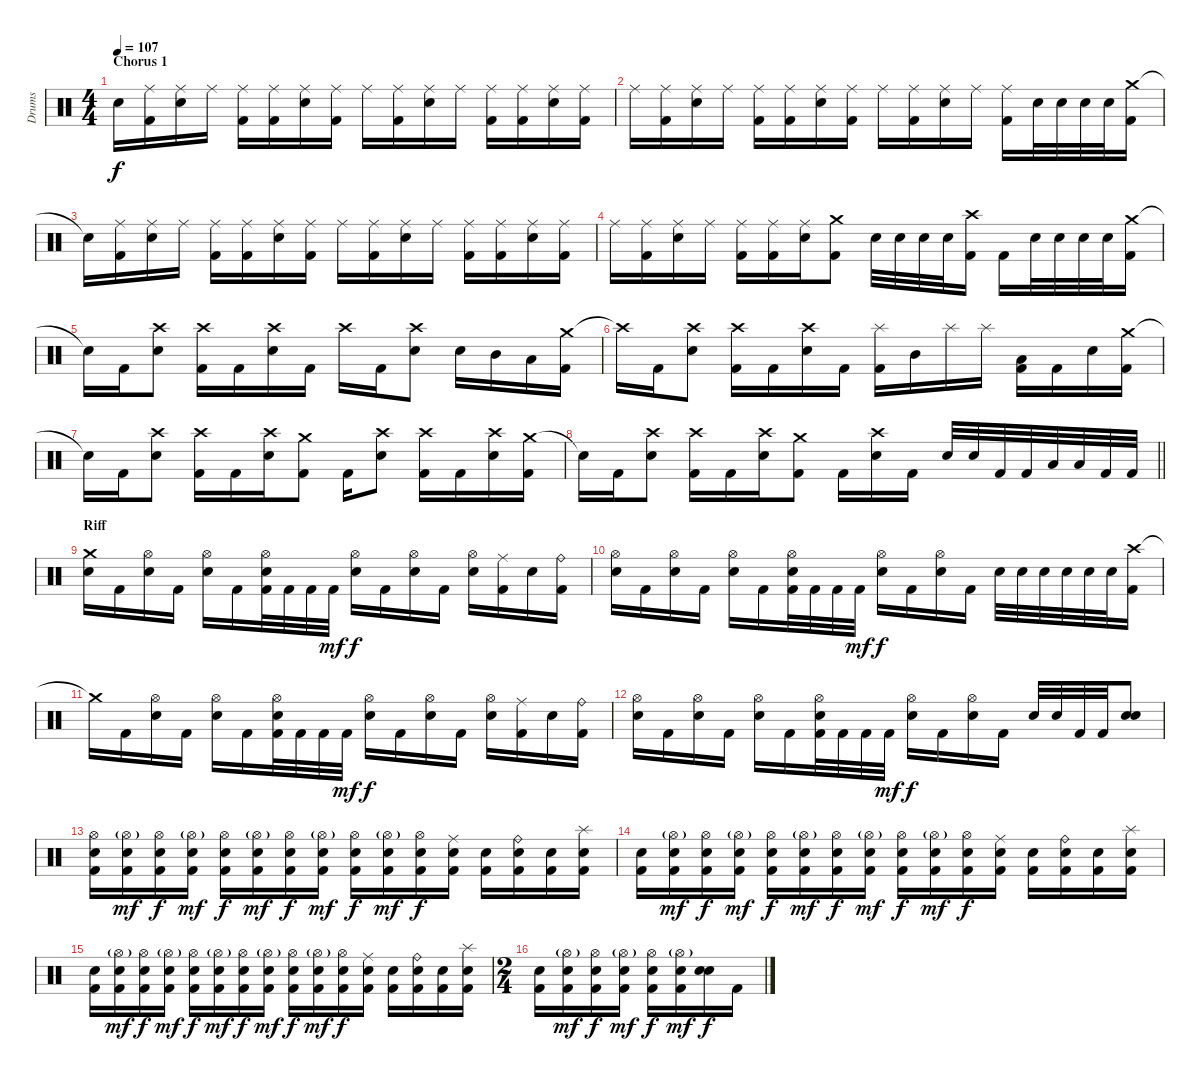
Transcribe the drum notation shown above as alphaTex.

\track ("Drums" "Drums") {instrument percussion}
\staff {score}
\articulation defaults
\ts (4 4)
\section ("" "Chorus 1")
\tempo 107
\clef neutral
\ks c "Snare (hit)"{t}.16{dy f}
("Ride (middle)" "Kick (hit) 2").16 ("Ride (middle)" "Electric Snare (hit)").16 "Ride (middle)".16 ("Ride (middle)" "Kick (hit) 2").16 ("Ride (middle)" "Kick (hit) 2").16 ("Ride (middle)" "Electric Snare (hit)").16 ("Ride (middle)" "Kick (hit) 2").16 "Ride (middle)".16 ("Ride (middle)" "Kick (hit) 2").16 ("Ride (middle)" "Electric Snare (hit)").16 "Ride (middle)".16 ("Ride (middle)" "Kick (hit) 2").16 ("Ride (middle)" "Kick (hit) 2").16 ("Ride (middle)" "Electric Snare (hit)").16 ("Ride (middle)" "Kick (hit) 2").16 |
"Ride (middle)".16 ("Ride (middle)" "Kick (hit) 2").16 ("Ride (middle)" "Electric Snare (hit)").16 "Ride (middle)".16 ("Ride (middle)" "Kick (hit) 2").16 ("Ride (middle)" "Kick (hit) 2").16 ("Ride (middle)" "Electric Snare (hit)").16 ("Ride (middle)" "Kick (hit) 2").16 "Ride (middle)".16 ("Ride (middle)" "Kick (hit) 2").16 ("Ride (middle)" "Electric Snare (hit)").16 "Ride (middle)".16 ("Ride (middle)" "Kick (hit) 2").16 "Electric Snare (hit)".32 "Electric Snare (hit)".32 "Electric Snare (hit)".32 "Electric Snare (hit)".32 ("Crash medium (hit)" "Kick (hit) 2").16 |
"Snare (hit)"{t}.16 ("Ride (middle)" "Kick (hit) 2").16 ("Ride (middle)" "Electric Snare (hit)").16 "Ride (middle)".16 ("Ride (middle)" "Kick (hit) 2").16 ("Ride (middle)" "Kick (hit) 2").16 ("Ride (middle)" "Electric Snare (hit)").16 ("Ride (middle)" "Kick (hit) 2").16 "Ride (middle)".16 ("Ride (middle)" "Kick (hit) 2").16 ("Ride (middle)" "Electric Snare (hit)").16 "Ride (middle)".16 ("Ride (middle)" "Kick (hit) 2").16 ("Ride (middle)" "Kick (hit) 2").16 ("Ride (middle)" "Electric Snare (hit)").16 ("Ride (middle)" "Kick (hit) 2").16 |
"Ride (middle)".16 ("Ride (middle)" "Kick (hit) 2").16 ("Ride (middle)" "Electric Snare (hit)").16 "Ride (middle)".16 ("Ride (middle)" "Kick (hit) 2").16 ("Ride (middle)" "Kick (hit) 2").16 ("Ride (middle)" "Electric Snare (hit)").16 ("Crash medium (hit)" "Kick (hit) 2").8 "Electric Snare (hit)".32 "Electric Snare (hit)".32 "Electric Snare (hit)".32 "Electric Snare (hit)".32 ("Crash high (hit)" "Kick (hit) 2").16 "Kick (hit) 2".16 "Electric Snare (hit)".32 "Electric Snare (hit)".32 "Electric Snare (hit)".32 "Electric Snare (hit)".32 ("Crash medium (hit)" "Kick (hit) 2").16 |
"Snare (hit)"{t}.16 "Kick (hit) 2".16 ("Crash high (hit)" "Electric Snare (hit)").8 ("Crash high (hit)" "Kick (hit) 2").16 "Kick (hit) 2".16 ("Crash high (hit)" "Electric Snare (hit)").16 "Kick (hit) 2".16 "Crash high (hit)".16 "Kick (hit) 2".16 ("Crash high (hit)" "Electric Snare (hit)").8 "Electric Snare (hit)".16 "Mid Tom (hit)".16 "Low Tom (hit)".16 ("Crash medium (hit)" "Kick (hit) 2").16 |
"Crash high (hit)"{t}.16 "Kick (hit) 2".16 ("Crash high (hit)" "Electric Snare (hit)").8 ("Crash high (hit)" "Kick (hit) 2").16 "Kick (hit) 2".16 ("Crash high (hit)" "Electric Snare (hit)").16 "Kick (hit) 2".16 ("Splash (hit)" "Kick (hit) 2").16 "Mid Tom (hit)".16 "Splash (hit)".16 "Splash (hit)".16 ("Low Tom (hit)" "Kick (hit) 2").16 "Kick (hit) 2".16 "Electric Snare (hit)".16 ("Crash medium (hit)" "Kick (hit) 2").16 |
"Snare (hit)"{t}.16 "Kick (hit) 2".16 ("Crash high (hit)" "Electric Snare (hit)").8 ("Crash high (hit)" "Kick (hit) 2").16 "Kick (hit) 2".16 ("Crash high (hit)" "Electric Snare (hit)").16 ("Crash medium (hit)" "Kick (hit) 2").8 "Kick (hit) 2".16 ("Crash high (hit)" "Electric Snare (hit)").8 ("Crash high (hit)" "Kick (hit) 2").16 "Kick (hit) 2".16 ("Crash high (hit)" "Electric Snare (hit)").16 ("Crash medium (hit)" "Kick (hit) 2").16 |
\barLineRight lightlight "Snare (hit)"{t}.16 "Kick (hit) 2".16
("Crash high (hit)" "Electric Snare (hit)").8 ("Crash high (hit)" "Kick (hit) 2").16 "Kick (hit) 2".16 ("Crash high (hit)" "Electric Snare (hit)").16 ("Crash medium (hit)" "Kick (hit) 2").8 "Kick (hit) 2".16 ("Crash high (hit)" "Electric Snare (hit)").16 "Kick (hit) 2".16 "Electric Snare (hit)".32 "Electric Snare (hit)".32 "Kick (hit) 2".32 "Kick (hit) 2".32 "Low Floor Tom (hit)".32 "Low Floor Tom (hit)".32 "Kick (hit) 2".32 "Kick (hit) 2".32 |
\section ("" "Riff")
("Crash medium (hit)" "Electric Snare (hit)").16 "Kick (hit) 2".16 ("Hi-Hat (open)" "Electric Snare (hit)").16 "Kick (hit) 2".16 ("Hi-Hat (open)" "Electric Snare (hit)").16 "Kick (hit) 2".16 ("Hi-Hat (open)" "Electric Snare (hit)" "Kick (hit) 2").32 "Kick (hit) 2".32 "Kick (hit) 2".32 "Kick (hit) 2".32{dy mf} ("Hi-Hat (open)" "Electric Snare (hit)").16{dy f} "Kick (hit) 2".16 ("Hi-Hat (open)" "Electric Snare (hit)").16 "Kick (hit) 2".16 ("Hi-Hat (open)" "Electric Snare (hit)").16 ("Ride (middle)" "Kick (hit) 2").16 "Electric Snare (hit)".16 ("Ride (bell)" "Kick (hit) 2").16 |
("Hi-Hat (open)" "Electric Snare (hit)").16 "Kick (hit) 2".16 ("Hi-Hat (open)" "Electric Snare (hit)").16 "Kick (hit) 2".16 ("Hi-Hat (open)" "Electric Snare (hit)").16 "Kick (hit) 2".16 ("Hi-Hat (open)" "Electric Snare (hit)" "Kick (hit) 2").32 "Kick (hit) 2".32 "Kick (hit) 2".32 "Kick (hit) 2".32{dy mf} ("Hi-Hat (open)" "Electric Snare (hit)").16{dy f} "Kick (hit) 2".16 ("Hi-Hat (open)" "Electric Snare (hit)").16 "Kick (hit) 2".16 "Electric Snare (hit)".32 "Electric Snare (hit)".32 "Electric Snare (hit)".32 "Electric Snare (hit)".32 "Electric Snare (hit)".32 "Electric Snare (hit)".32 ("Crash high (hit)" "Kick (hit) 2").16 |
"Crash medium (hit)"{t}.16 "Kick (hit) 2".16 ("Hi-Hat (open)" "Electric Snare (hit)").16 "Kick (hit) 2".16 ("Hi-Hat (open)" "Electric Snare (hit)").16 "Kick (hit) 2".16 ("Hi-Hat (open)" "Electric Snare (hit)" "Kick (hit) 2").32 "Kick (hit) 2".32 "Kick (hit) 2".32 "Kick (hit) 2".32{dy mf} ("Hi-Hat (open)" "Electric Snare (hit)").16{dy f} "Kick (hit) 2".16 ("Hi-Hat (open)" "Electric Snare (hit)").16 "Kick (hit) 2".16 ("Hi-Hat (open)" "Electric Snare (hit)").16 ("Ride (middle)" "Kick (hit) 2").16 "Electric Snare (hit)".16 ("Ride (bell)" "Kick (hit) 2").16 |
("Hi-Hat (open)" "Electric Snare (hit)").16 "Kick (hit) 2".16 ("Hi-Hat (open)" "Electric Snare (hit)").16 "Kick (hit) 2".16 ("Hi-Hat (open)" "Electric Snare (hit)").16 "Kick (hit) 2".16 ("Hi-Hat (open)" "Electric Snare (hit)" "Kick (hit) 2").32 "Kick (hit) 2".32 "Kick (hit) 2".32 "Kick (hit) 2".32{dy mf} ("Hi-Hat (open)" "Electric Snare (hit)").16{dy f} "Kick (hit) 2".16 ("Hi-Hat (open)" "Electric Snare (hit)").16 "Kick (hit) 2".16 "Electric Snare (hit)".32 "Electric Snare (hit)".32 "Kick (hit) 2".32 "Kick (hit) 2".32 ("Electric Snare (hit)" "Electric Snare (hit)").8 |
("Hi-Hat (open)" "Electric Snare (hit)" "Kick (hit) 2").16 ("Hi-Hat (open)"{g} "Electric Snare (hit)" "Kick (hit) 2").16{dy mf} ("Hi-Hat (open)" "Electric Snare (hit)" "Kick (hit) 2").16{dy f} ("Hi-Hat (open)"{g} "Electric Snare (hit)" "Kick (hit) 2").16{dy mf} ("Hi-Hat (open)" "Electric Snare (hit)" "Kick (hit) 2").16{dy f} ("Hi-Hat (open)"{g} "Electric Snare (hit)" "Kick (hit) 2").16{dy mf} ("Hi-Hat (open)" "Electric Snare (hit)" "Kick (hit) 2").16{dy f} ("Hi-Hat (open)"{g} "Electric Snare (hit)" "Kick (hit) 2").16{dy mf} ("Hi-Hat (open)" "Electric Snare (hit)" "Kick (hit) 2").16{dy f} ("Hi-Hat (open)"{g} "Electric Snare (hit)" "Kick (hit) 2").16{dy mf} ("Hi-Hat (open)" "Electric Snare (hit)" "Kick (hit) 2").16{dy f} ("Ride (middle)" "Electric Snare (hit)" "Kick (hit) 2").16 ("Electric Snare (hit)" "Kick (hit) 2").16 ("Ride (bell)" "Electric Snare (hit)" "Kick (hit) 2").16 ("Electric Snare (hit)" "Kick (hit) 2").16 ("Splash (hit)" "Electric Snare (hit)" "Kick (hit) 2").16 |
("Electric Snare (hit)" "Kick (hit) 2").16 ("Hi-Hat (open)"{g} "Electric Snare (hit)" "Kick (hit) 2").16{dy mf} ("Hi-Hat (open)" "Electric Snare (hit)" "Kick (hit) 2").16{dy f} ("Hi-Hat (open)"{g} "Electric Snare (hit)" "Kick (hit) 2").16{dy mf} ("Hi-Hat (open)" "Electric Snare (hit)" "Kick (hit) 2").16{dy f} ("Hi-Hat (open)"{g} "Electric Snare (hit)" "Kick (hit) 2").16{dy mf} ("Hi-Hat (open)" "Electric Snare (hit)" "Kick (hit) 2").16{dy f} ("Hi-Hat (open)"{g} "Electric Snare (hit)" "Kick (hit) 2").16{dy mf} ("Hi-Hat (open)" "Electric Snare (hit)" "Kick (hit) 2").16{dy f} ("Hi-Hat (open)"{g} "Electric Snare (hit)" "Kick (hit) 2").16{dy mf} ("Hi-Hat (open)" "Electric Snare (hit)" "Kick (hit) 2").16{dy f} ("Ride (middle)" "Electric Snare (hit)" "Kick (hit) 2").16 ("Electric Snare (hit)" "Kick (hit) 2").16 ("Ride (bell)" "Electric Snare (hit)" "Kick (hit) 2").16 ("Electric Snare (hit)" "Kick (hit) 2").16 ("Splash (hit)" "Electric Snare (hit)" "Kick (hit) 2").16 |
("Electric Snare (hit)" "Kick (hit) 2").16 ("Hi-Hat (open)"{g} "Electric Snare (hit)" "Kick (hit) 2").16{dy mf} ("Hi-Hat (open)" "Electric Snare (hit)" "Kick (hit) 2").16{dy f} ("Hi-Hat (open)"{g} "Electric Snare (hit)" "Kick (hit) 2").16{dy mf} ("Hi-Hat (open)" "Electric Snare (hit)" "Kick (hit) 2").16{dy f} ("Hi-Hat (open)"{g} "Electric Snare (hit)" "Kick (hit) 2").16{dy mf} ("Hi-Hat (open)" "Electric Snare (hit)" "Kick (hit) 2").16{dy f} ("Hi-Hat (open)"{g} "Electric Snare (hit)" "Kick (hit) 2").16{dy mf} ("Hi-Hat (open)" "Electric Snare (hit)" "Kick (hit) 2").16{dy f} ("Hi-Hat (open)"{g} "Electric Snare (hit)" "Kick (hit) 2").16{dy mf} ("Hi-Hat (open)" "Electric Snare (hit)" "Kick (hit) 2").16{dy f} ("Ride (middle)" "Electric Snare (hit)" "Kick (hit) 2").16 ("Electric Snare (hit)" "Kick (hit) 2").16 ("Ride (bell)" "Electric Snare (hit)" "Kick (hit) 2").16 ("Electric Snare (hit)" "Kick (hit) 2").16 ("Splash (hit)" "Electric Snare (hit)" "Kick (hit) 2").16 |
\ts (2 4)
("Electric Snare (hit)" "Kick (hit) 2").16 ("Hi-Hat (open)"{g} "Electric Snare (hit)" "Kick (hit) 2").16{dy mf} ("Hi-Hat (open)" "Electric Snare (hit)" "Kick (hit) 2").16{dy f} ("Hi-Hat (open)"{g} "Electric Snare (hit)" "Kick (hit) 2").16{dy mf} ("Hi-Hat (open)" "Electric Snare (hit)" "Kick (hit) 2").16{dy f} ("Hi-Hat (open)"{g} "Electric Snare (hit)" "Kick (hit) 2").16{dy mf} ("Electric Snare (hit)" "Electric Snare (hit)").16{dy f} "Kick (hit) 2".16
